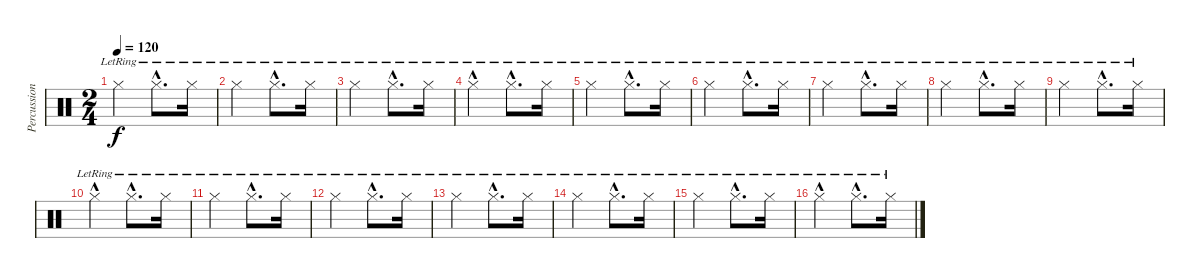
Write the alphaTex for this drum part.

\track ("Percussion" "Percussion") {instrument percussion}
\staff {score}
\articulation defaults
\ts (2 4)
\tempo 120
\clef neutral
\ks c "Hi-Hat (closed)"{lr}.4{dy f} "Hi-Hat (closed)"{hac lr}.8{d} "Hi-Hat (closed)"{lr}.16
|
"Hi-Hat (closed)"{lr}.4 "Hi-Hat (closed)"{hac lr}.8{d} "Hi-Hat (closed)"{lr}.16 |
"Hi-Hat (closed)"{lr}.4 "Hi-Hat (closed)"{hac lr}.8{d} "Hi-Hat (closed)"{lr}.16 |
"Hi-Hat (closed)"{hac lr}.4 "Hi-Hat (closed)"{hac lr}.8{d} "Hi-Hat (closed)"{lr}.16 |
"Hi-Hat (closed)"{lr}.4 "Hi-Hat (closed)"{hac lr}.8{d} "Hi-Hat (closed)"{lr}.16 |
"Hi-Hat (closed)"{lr}.4 "Hi-Hat (closed)"{hac lr}.8{d} "Hi-Hat (closed)"{lr}.16 |
"Hi-Hat (closed)"{lr}.4 "Hi-Hat (closed)"{hac lr}.8{d} "Hi-Hat (closed)"{lr}.16 |
"Hi-Hat (closed)"{lr}.4 "Hi-Hat (closed)"{hac lr}.8{d} "Hi-Hat (closed)"{lr}.16 |
"Hi-Hat (closed)"{lr}.4 "Hi-Hat (closed)"{hac lr}.8{d} "Hi-Hat (closed)"{lr}.16 |
"Hi-Hat (closed)"{hac lr}.4 "Hi-Hat (closed)"{hac lr}.8{d} "Hi-Hat (closed)"{lr}.16 |
"Hi-Hat (closed)"{lr}.4 "Hi-Hat (closed)"{hac lr}.8{d} "Hi-Hat (closed)"{lr}.16 |
"Hi-Hat (closed)"{lr}.4 "Hi-Hat (closed)"{hac lr}.8{d} "Hi-Hat (closed)"{lr}.16 |
"Hi-Hat (closed)"{lr}.4 "Hi-Hat (closed)"{hac lr}.8{d} "Hi-Hat (closed)"{lr}.16 |
"Hi-Hat (closed)"{lr}.4 "Hi-Hat (closed)"{hac lr}.8{d} "Hi-Hat (closed)"{lr}.16 |
"Hi-Hat (closed)"{lr}.4 "Hi-Hat (closed)"{hac lr}.8{d} "Hi-Hat (closed)"{lr}.16 |
"Hi-Hat (closed)"{hac lr}.4 "Hi-Hat (closed)"{hac lr}.8{d} "Hi-Hat (closed)"{lr}.16
